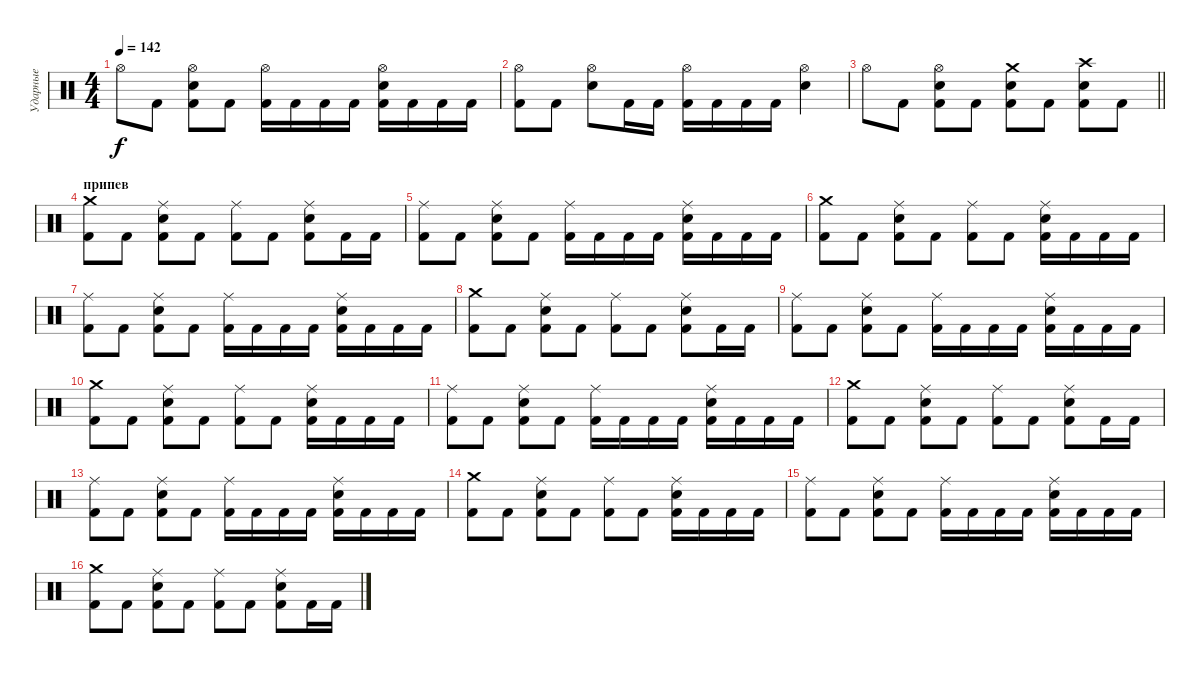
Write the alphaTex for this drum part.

\track ("Ударные" "Ударные") {instrument percussion}
\staff {score}
\articulation defaults
\ts (4 4)
\tempo 142
\clef neutral
\ks c "Hi-Hat (open)".8{dy f} "Kick (hit) 2".8
("Kick (hit) 2" "Snare (hit) 2" "Hi-Hat (open)").8 "Kick (hit) 2".8 ("Kick (hit) 2" "Hi-Hat (open)").16 "Kick (hit) 2".16 "Kick (hit) 2".16 "Kick (hit) 2".16 ("Kick (hit) 2" "Snare (hit) 2" "Hi-Hat (open)").16 "Kick (hit) 2".16 "Kick (hit) 2".16 "Kick (hit) 2".16 |
("Kick (hit) 2" "Hi-Hat (open)").8 "Kick (hit) 2".8 ("Snare (hit) 2" "Hi-Hat (open)").8 "Kick (hit) 2".16 "Kick (hit) 2".16 ("Kick (hit) 2" "Hi-Hat (open)").16 "Kick (hit) 2".16 "Kick (hit) 2".16 "Kick (hit) 2".16 ("Snare (hit) 2" "Hi-Hat (open)").4 |
\barLineRight lightlight "Hi-Hat (open)".8 "Kick (hit) 2".8
("Kick (hit) 2" "Snare (hit) 2" "Hi-Hat (open)").8 "Kick (hit) 2".8 ("Kick (hit) 2" "Snare (hit) 2" "Crash medium (hit)").8 "Kick (hit) 2".8 ("Kick (hit) 2" "Snare (hit) 2" "Crash high (hit)").8 "Kick (hit) 2".8 |
\section ("" "припев")
("Kick (hit) 2" "Crash medium (hit)").8 "Kick (hit) 2".8 ("Kick (hit) 2" "Snare (hit) 2" "Ride (middle)").8 "Kick (hit) 2".8 ("Kick (hit) 2" "Ride (middle)").8 "Kick (hit) 2".8 ("Kick (hit) 2" "Snare (hit) 2" "Ride (middle)").8 "Kick (hit) 2".16 "Kick (hit) 2".16 |
("Kick (hit) 2" "Ride (middle)").8 "Kick (hit) 2".8 ("Kick (hit) 2" "Snare (hit) 2" "Ride (middle)").8 "Kick (hit) 2".8 ("Kick (hit) 2" "Ride (middle)").16 "Kick (hit) 2".16 "Kick (hit) 2".16 "Kick (hit) 2".16 ("Kick (hit) 2" "Snare (hit) 2" "Ride (middle)").16 "Kick (hit) 2".16 "Kick (hit) 2".16 "Kick (hit) 2".16 |
("Kick (hit) 2" "Crash medium (hit)").8 "Kick (hit) 2".8 ("Kick (hit) 2" "Snare (hit) 2" "Ride (middle)").8 "Kick (hit) 2".8 ("Kick (hit) 2" "Ride (middle)").8 "Kick (hit) 2".8 ("Kick (hit) 2" "Snare (hit) 2" "Ride (middle)").16 "Kick (hit) 2".16 "Kick (hit) 2".16 "Kick (hit) 2".16 |
("Kick (hit) 2" "Ride (middle)").8 "Kick (hit) 2".8 ("Kick (hit) 2" "Snare (hit) 2" "Ride (middle)").8 "Kick (hit) 2".8 ("Kick (hit) 2" "Ride (middle)").16 "Kick (hit) 2".16 "Kick (hit) 2".16 "Kick (hit) 2".16 ("Kick (hit) 2" "Snare (hit) 2" "Ride (middle)").16 "Kick (hit) 2".16 "Kick (hit) 2".16 "Kick (hit) 2".16 |
("Kick (hit) 2" "Crash medium (hit)").8 "Kick (hit) 2".8 ("Kick (hit) 2" "Snare (hit) 2" "Ride (middle)").8 "Kick (hit) 2".8 ("Kick (hit) 2" "Ride (middle)").8 "Kick (hit) 2".8 ("Kick (hit) 2" "Snare (hit) 2" "Ride (middle)").8 "Kick (hit) 2".16 "Kick (hit) 2".16 |
("Kick (hit) 2" "Ride (middle)").8 "Kick (hit) 2".8 ("Kick (hit) 2" "Snare (hit) 2" "Ride (middle)").8 "Kick (hit) 2".8 ("Kick (hit) 2" "Ride (middle)").16 "Kick (hit) 2".16 "Kick (hit) 2".16 "Kick (hit) 2".16 ("Kick (hit) 2" "Snare (hit) 2" "Ride (middle)").16 "Kick (hit) 2".16 "Kick (hit) 2".16 "Kick (hit) 2".16 |
("Kick (hit) 2" "Crash medium (hit)").8 "Kick (hit) 2".8 ("Kick (hit) 2" "Snare (hit) 2" "Ride (middle)").8 "Kick (hit) 2".8 ("Kick (hit) 2" "Ride (middle)").8 "Kick (hit) 2".8 ("Kick (hit) 2" "Snare (hit) 2" "Ride (middle)").16 "Kick (hit) 2".16 "Kick (hit) 2".16 "Kick (hit) 2".16 |
("Kick (hit) 2" "Ride (middle)").8 "Kick (hit) 2".8 ("Kick (hit) 2" "Snare (hit) 2" "Ride (middle)").8 "Kick (hit) 2".8 ("Kick (hit) 2" "Ride (middle)").16 "Kick (hit) 2".16 "Kick (hit) 2".16 "Kick (hit) 2".16 ("Kick (hit) 2" "Snare (hit) 2" "Ride (middle)").16 "Kick (hit) 2".16 "Kick (hit) 2".16 "Kick (hit) 2".16 |
("Kick (hit) 2" "Crash medium (hit)").8 "Kick (hit) 2".8 ("Kick (hit) 2" "Snare (hit) 2" "Ride (middle)").8 "Kick (hit) 2".8 ("Kick (hit) 2" "Ride (middle)").8 "Kick (hit) 2".8 ("Kick (hit) 2" "Snare (hit) 2" "Ride (middle)").8 "Kick (hit) 2".16 "Kick (hit) 2".16 |
("Kick (hit) 2" "Ride (middle)").8 "Kick (hit) 2".8 ("Kick (hit) 2" "Snare (hit) 2" "Ride (middle)").8 "Kick (hit) 2".8 ("Kick (hit) 2" "Ride (middle)").16 "Kick (hit) 2".16 "Kick (hit) 2".16 "Kick (hit) 2".16 ("Kick (hit) 2" "Snare (hit) 2" "Ride (middle)").16 "Kick (hit) 2".16 "Kick (hit) 2".16 "Kick (hit) 2".16 |
("Kick (hit) 2" "Crash medium (hit)").8 "Kick (hit) 2".8 ("Kick (hit) 2" "Snare (hit) 2" "Ride (middle)").8 "Kick (hit) 2".8 ("Kick (hit) 2" "Ride (middle)").8 "Kick (hit) 2".8 ("Kick (hit) 2" "Snare (hit) 2" "Ride (middle)").16 "Kick (hit) 2".16 "Kick (hit) 2".16 "Kick (hit) 2".16 |
("Kick (hit) 2" "Ride (middle)").8 "Kick (hit) 2".8 ("Kick (hit) 2" "Snare (hit) 2" "Ride (middle)").8 "Kick (hit) 2".8 ("Kick (hit) 2" "Ride (middle)").16 "Kick (hit) 2".16 "Kick (hit) 2".16 "Kick (hit) 2".16 ("Kick (hit) 2" "Snare (hit) 2" "Ride (middle)").16 "Kick (hit) 2".16 "Kick (hit) 2".16 "Kick (hit) 2".16 |
("Kick (hit) 2" "Crash medium (hit)").8 "Kick (hit) 2".8 ("Kick (hit) 2" "Snare (hit) 2" "Ride (middle)").8 "Kick (hit) 2".8 ("Kick (hit) 2" "Ride (middle)").8 "Kick (hit) 2".8 ("Kick (hit) 2" "Snare (hit) 2" "Ride (middle)").8 "Kick (hit) 2".16 "Kick (hit) 2".16
